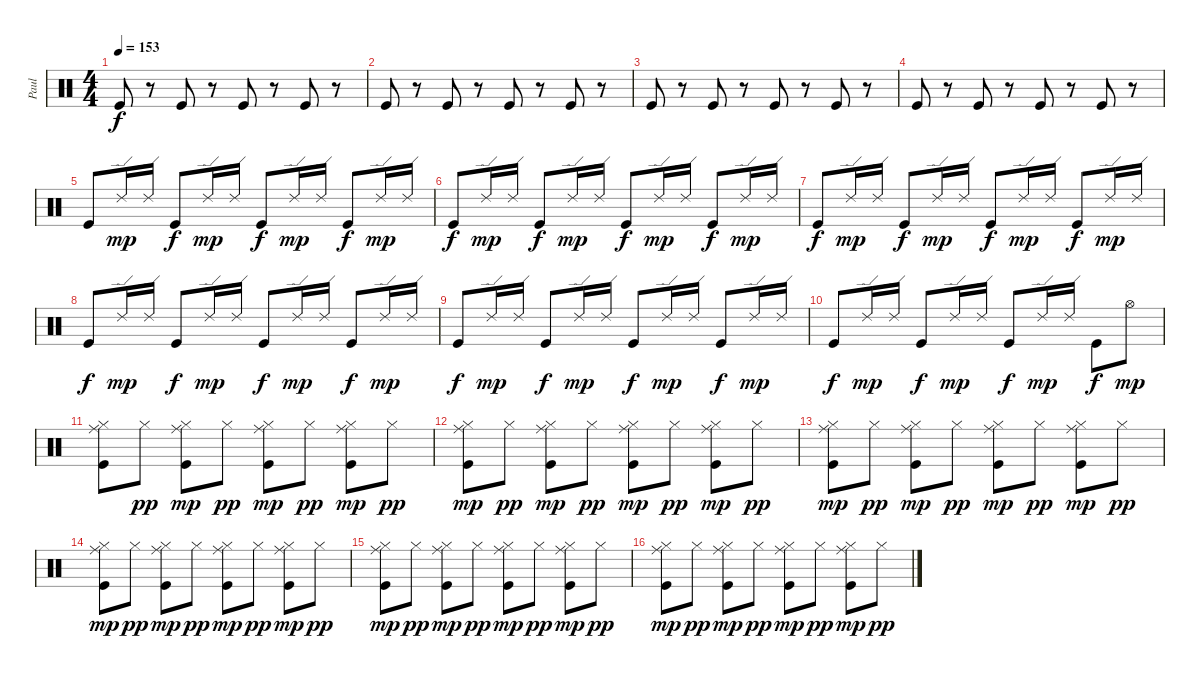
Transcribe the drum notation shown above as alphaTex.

\track ("Paul" "Paul") {instrument percussion}
\staff {score}
\articulation defaults
\ts (4 4)
\tempo 153
\clef neutral
\ks c "Kick (hit)".8{dy f}
r.8 "Kick (hit)".8 r.8 "Kick (hit)".8 r.8 "Kick (hit)".8 r.8 |
"Kick (hit)".8 r.8 "Kick (hit)".8 r.8 "Kick (hit)".8 r.8 "Kick (hit)".8 r.8 |
"Kick (hit)".8 r.8 "Kick (hit)".8 r.8 "Kick (hit)".8 r.8 "Kick (hit)".8 r.8 |
"Kick (hit)".8 r.8 "Kick (hit)".8 r.8 "Kick (hit)".8 r.8 "Kick (hit)".8 r.8 |
"Kick (hit)".8 "Ride (edge) 2".16{dy mp} "Ride (edge) 2".16 "Kick (hit)".8{dy f} "Ride (edge) 2".16{dy mp} "Ride (edge) 2".16 "Kick (hit)".8{dy f} "Ride (edge) 2".16{dy mp} "Ride (edge) 2".16 "Kick (hit)".8{dy f} "Ride (edge) 2".16{dy mp} "Ride (edge) 2".16 |
"Kick (hit)".8{dy f} "Ride (edge) 2".16{dy mp} "Ride (edge) 2".16 "Kick (hit)".8{dy f} "Ride (edge) 2".16{dy mp} "Ride (edge) 2".16 "Kick (hit)".8{dy f} "Ride (edge) 2".16{dy mp} "Ride (edge) 2".16 "Kick (hit)".8{dy f} "Ride (edge) 2".16{dy mp} "Ride (edge) 2".16 |
"Kick (hit)".8{dy f} "Ride (edge) 2".16{dy mp} "Ride (edge) 2".16 "Kick (hit)".8{dy f} "Ride (edge) 2".16{dy mp} "Ride (edge) 2".16 "Kick (hit)".8{dy f} "Ride (edge) 2".16{dy mp} "Ride (edge) 2".16 "Kick (hit)".8{dy f} "Ride (edge) 2".16{dy mp} "Ride (edge) 2".16 |
"Kick (hit)".8{dy f} "Ride (edge) 2".16{dy mp} "Ride (edge) 2".16 "Kick (hit)".8{dy f} "Ride (edge) 2".16{dy mp} "Ride (edge) 2".16 "Kick (hit)".8{dy f} "Ride (edge) 2".16{dy mp} "Ride (edge) 2".16 "Kick (hit)".8{dy f} "Ride (edge) 2".16{dy mp} "Ride (edge) 2".16 |
"Kick (hit)".8{dy f} "Ride (edge) 2".16{dy mp} "Ride (edge) 2".16 "Kick (hit)".8{dy f} "Ride (edge) 2".16{dy mp} "Ride (edge) 2".16 "Kick (hit)".8{dy f} "Ride (edge) 2".16{dy mp} "Ride (edge) 2".16 "Kick (hit)".8{dy f} "Ride (edge) 2".16{dy mp} "Ride (edge) 2".16 |
"Kick (hit)".8{dy f} "Ride (edge) 2".16{dy mp} "Ride (edge) 2".16 "Kick (hit)".8{dy f} "Ride (edge) 2".16{dy mp} "Ride (edge) 2".16 "Kick (hit)".8{dy f} "Ride (edge) 2".16{dy mp} "Ride (edge) 2".16 "Kick (hit)".8{dy f} "Hi-Hat (open)".8{dy mp} |
("Kick (hit)" "Hi-Hat (closed)" "Ride (middle)").8 "Hi-Hat (closed)".8{dy pp} ("Kick (hit)" "Hi-Hat (closed)" "Ride (middle)").8{dy mp} "Hi-Hat (closed)".8{dy pp} ("Kick (hit)" "Hi-Hat (closed)" "Ride (middle)").8{dy mp} "Hi-Hat (closed)".8{dy pp} ("Kick (hit)" "Hi-Hat (closed)" "Ride (middle)").8{dy mp} "Hi-Hat (closed)".8{dy pp} |
("Kick (hit)" "Hi-Hat (closed)" "Ride (middle)").8{dy mp} "Hi-Hat (closed)".8{dy pp} ("Kick (hit)" "Hi-Hat (closed)" "Ride (middle)").8{dy mp} "Hi-Hat (closed)".8{dy pp} ("Kick (hit)" "Hi-Hat (closed)" "Ride (middle)").8{dy mp} "Hi-Hat (closed)".8{dy pp} ("Kick (hit)" "Hi-Hat (closed)" "Ride (middle)").8{dy mp} "Hi-Hat (closed)".8{dy pp} |
("Kick (hit)" "Hi-Hat (closed)" "Ride (middle)").8{dy mp} "Hi-Hat (closed)".8{dy pp} ("Kick (hit)" "Hi-Hat (closed)" "Ride (middle)").8{dy mp} "Hi-Hat (closed)".8{dy pp} ("Kick (hit)" "Hi-Hat (closed)" "Ride (middle)").8{dy mp} "Hi-Hat (closed)".8{dy pp} ("Kick (hit)" "Hi-Hat (closed)" "Ride (middle)").8{dy mp} "Hi-Hat (closed)".8{dy pp} |
("Kick (hit)" "Hi-Hat (closed)" "Ride (middle)").8{dy mp} "Hi-Hat (closed)".8{dy pp} ("Kick (hit)" "Hi-Hat (closed)" "Ride (middle)").8{dy mp} "Hi-Hat (closed)".8{dy pp} ("Kick (hit)" "Hi-Hat (closed)" "Ride (middle)").8{dy mp} "Hi-Hat (closed)".8{dy pp} ("Kick (hit)" "Hi-Hat (closed)" "Ride (middle)").8{dy mp} "Hi-Hat (closed)".8{dy pp} |
("Kick (hit)" "Hi-Hat (closed)" "Ride (middle)").8{dy mp} "Hi-Hat (closed)".8{dy pp} ("Kick (hit)" "Hi-Hat (closed)" "Ride (middle)").8{dy mp} "Hi-Hat (closed)".8{dy pp} ("Kick (hit)" "Hi-Hat (closed)" "Ride (middle)").8{dy mp} "Hi-Hat (closed)".8{dy pp} ("Kick (hit)" "Hi-Hat (closed)" "Ride (middle)").8{dy mp} "Hi-Hat (closed)".8{dy pp} |
("Kick (hit)" "Hi-Hat (closed)" "Ride (middle)").8{dy mp} "Hi-Hat (closed)".8{dy pp} ("Kick (hit)" "Hi-Hat (closed)" "Ride (middle)").8{dy mp} "Hi-Hat (closed)".8{dy pp} ("Kick (hit)" "Hi-Hat (closed)" "Ride (middle)").8{dy mp} "Hi-Hat (closed)".8{dy pp} ("Kick (hit)" "Hi-Hat (closed)" "Ride (middle)").8{dy mp} "Hi-Hat (closed)".8{dy pp}
